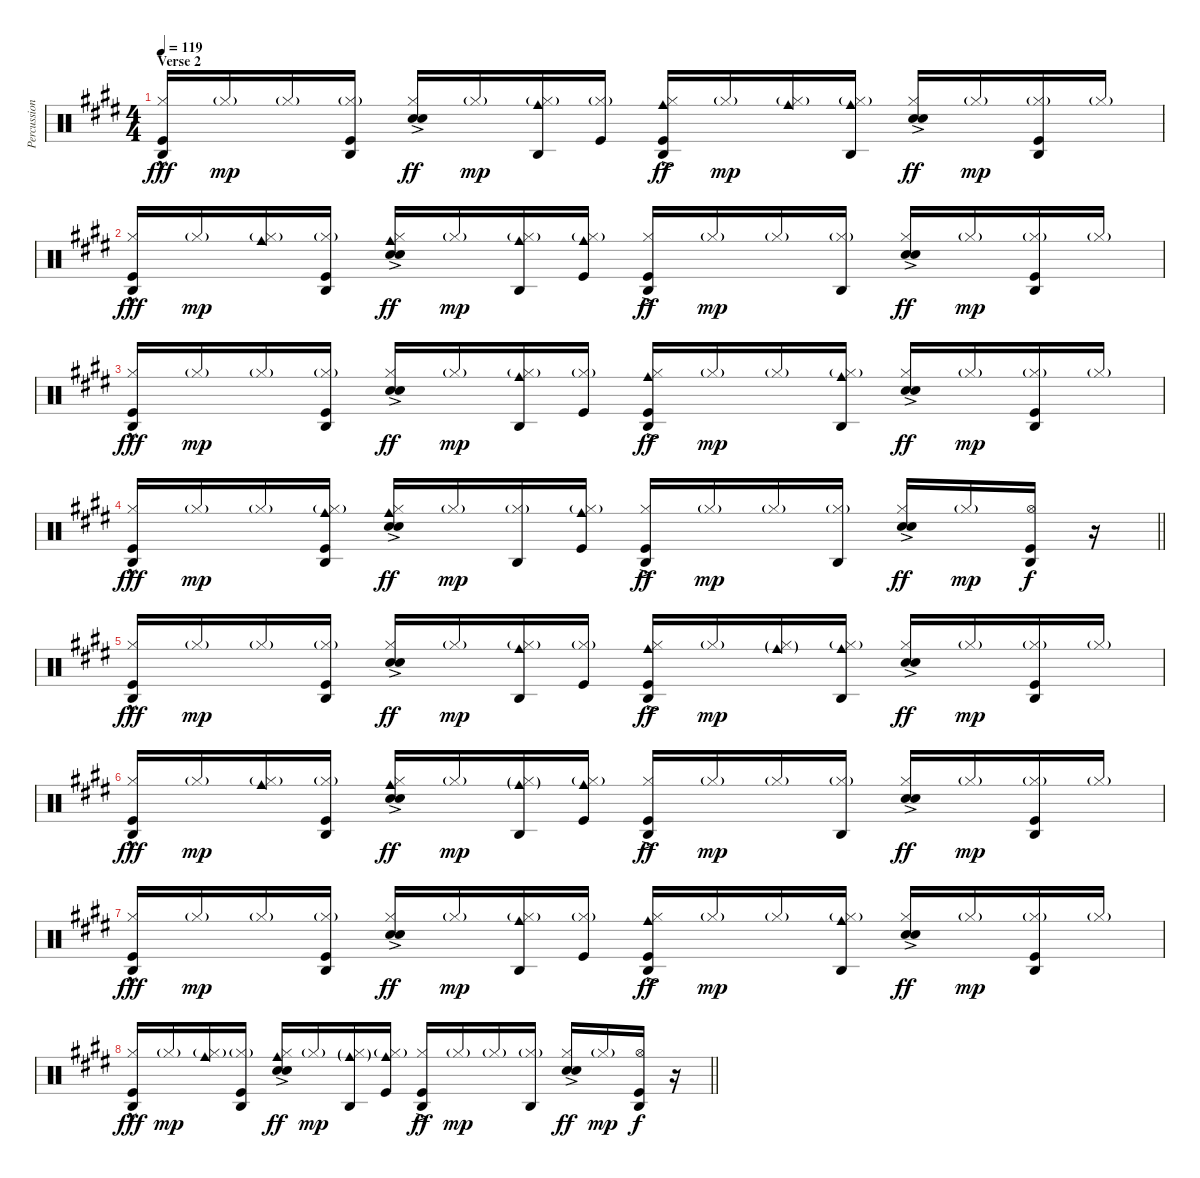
\track ("Percussion" "Percussion") {instrument percussion}
\staff {score}
\articulation defaults
\ts (4 4)
\section ("" "Verse 2")
\tempo 119
\clef neutral
\ks e
("Agogo high (hit)" "Hi-Hat (closed)" "Kick (hit)"{hac}).16{dy fff} "Hi-Hat (closed)"{g}.16{dy mp} "Hi-Hat (closed)"{g}.16 ("Agogo high (hit)" "Hi-Hat (closed)"{g} "Kick (hit)").16 ("Hi-Hat (closed)" "Hand Clap (hit)"{ac} "Snare (hit) 2"{ac}).16{dy ff} "Hi-Hat (closed)"{g}.16{dy mp} ("Agogo high (hit)" "Cowbell medium (hit)" "Hi-Hat (closed)"{g}).16 ("Hi-Hat (closed)"{g} "Kick (hit)").16 ("Agogo high (hit)" "Cowbell medium (hit)" "Hi-Hat (closed)" "Kick (hit)"{ac}).16{dy ff} "Hi-Hat (closed)"{g}.16{dy mp} ("Cowbell medium (hit)" "Hi-Hat (closed)"{g}).16 ("Agogo high (hit)" "Cowbell medium (hit)" "Hi-Hat (closed)"{g}).16 ("Hi-Hat (closed)" "Hand Clap (hit)"{ac} "Snare (hit) 2"{ac}).16{dy ff} "Hi-Hat (closed)"{g}.16{dy mp} ("Agogo high (hit)" "Hi-Hat (closed)"{g} "Kick (hit)").16 "Hi-Hat (closed)"{g}.16 |
("Agogo high (hit)" "Hi-Hat (closed)" "Kick (hit)"{hac}).16{dy fff} "Hi-Hat (closed)"{g}.16{dy mp} ("Cowbell medium (hit)" "Hi-Hat (closed)"{g}).16 ("Agogo high (hit)" "Hi-Hat (closed)"{g} "Kick (hit)").16 ("Cowbell medium (hit)" "Hi-Hat (closed)" "Hand Clap (hit)"{ac} "Snare (hit) 2"{ac}).16{dy ff} "Hi-Hat (closed)"{g}.16{dy mp} ("Agogo high (hit)" "Cowbell medium (hit)" "Hi-Hat (closed)"{g}).16 ("Cowbell medium (hit)" "Hi-Hat (closed)"{g} "Kick (hit)").16 ("Agogo high (hit)" "Hi-Hat (closed)" "Kick (hit)"{ac}).16{dy ff} "Hi-Hat (closed)"{g}.16{dy mp} "Hi-Hat (closed)"{g}.16 ("Agogo high (hit)" "Hi-Hat (closed)"{g}).16 ("Hi-Hat (closed)" "Hand Clap (hit)"{ac} "Snare (hit) 2"{ac}).16{dy ff} "Hi-Hat (closed)"{g}.16{dy mp} ("Agogo high (hit)" "Hi-Hat (closed)"{g} "Kick (hit)").16 "Hi-Hat (closed)"{g}.16 |
("Agogo high (hit)" "Hi-Hat (closed)" "Kick (hit)"{hac}).16{dy fff} "Hi-Hat (closed)"{g}.16{dy mp} "Hi-Hat (closed)"{g}.16 ("Agogo high (hit)" "Hi-Hat (closed)"{g} "Kick (hit)").16 ("Hi-Hat (closed)" "Hand Clap (hit)"{ac} "Snare (hit) 2"{ac}).16{dy ff} "Hi-Hat (closed)"{g}.16{dy mp} ("Agogo high (hit)" "Cowbell medium (hit)" "Hi-Hat (closed)"{g}).16 ("Hi-Hat (closed)"{g} "Kick (hit)").16 ("Agogo high (hit)" "Cowbell medium (hit)" "Hi-Hat (closed)" "Kick (hit)"{ac}).16{dy ff} "Hi-Hat (closed)"{g}.16{dy mp} "Hi-Hat (closed)"{g}.16 ("Agogo high (hit)" "Cowbell medium (hit)" "Hi-Hat (closed)"{g}).16 ("Hi-Hat (closed)" "Hand Clap (hit)"{ac} "Snare (hit) 2"{ac}).16{dy ff} "Hi-Hat (closed)"{g}.16{dy mp} ("Agogo high (hit)" "Hi-Hat (closed)"{g} "Kick (hit)").16 "Hi-Hat (closed)"{g}.16 |
\barLineRight lightlight
("Agogo high (hit)" "Hi-Hat (closed)" "Kick (hit)"{hac}).16{dy fff} "Hi-Hat (closed)"{g}.16{dy mp} "Hi-Hat (closed)"{g}.16 ("Agogo high (hit)" "Cowbell medium (hit)" "Hi-Hat (closed)"{g} "Kick (hit)").16 ("Cowbell medium (hit)" "Hi-Hat (closed)" "Hand Clap (hit)"{ac} "Snare (hit) 2"{ac}).16{dy ff} "Hi-Hat (closed)"{g}.16{dy mp} ("Agogo high (hit)" "Hi-Hat (closed)"{g}).16 ("Cowbell medium (hit)" "Hi-Hat (closed)"{g} "Kick (hit)").16 ("Agogo high (hit)" "Hi-Hat (closed)" "Kick (hit)"{ac}).16{dy ff} "Hi-Hat (closed)"{g}.16{dy mp} "Hi-Hat (closed)"{g}.16 ("Agogo high (hit)" "Hi-Hat (closed)"{g}).16 ("Hi-Hat (closed)" "Hand Clap (hit)"{ac} "Snare (hit) 2"{ac}).16{dy ff} "Hi-Hat (closed)"{g}.16{dy mp} ("Agogo high (hit)" "Hi-Hat (open)" "Kick (hit)").16{dy f} r.16 |
("Agogo high (hit)" "Hi-Hat (closed)" "Kick (hit)"{hac}).16{dy fff} "Hi-Hat (closed)"{g}.16{dy mp} "Hi-Hat (closed)"{g}.16 ("Agogo high (hit)" "Hi-Hat (closed)"{g} "Kick (hit)").16 ("Hi-Hat (closed)" "Hand Clap (hit)"{ac} "Snare (hit) 2"{ac}).16{dy ff} "Hi-Hat (closed)"{g}.16{dy mp} ("Agogo high (hit)" "Cowbell medium (hit)" "Hi-Hat (closed)"{g}).16 ("Hi-Hat (closed)"{g} "Kick (hit)").16 ("Agogo high (hit)" "Cowbell medium (hit)" "Hi-Hat (closed)" "Kick (hit)"{ac}).16{dy ff} "Hi-Hat (closed)"{g}.16{dy mp} ("Cowbell medium (hit)"{g} "Hi-Hat (closed)"{g}).16 ("Agogo high (hit)" "Cowbell medium (hit)" "Hi-Hat (closed)"{g}).16 ("Hi-Hat (closed)" "Hand Clap (hit)"{ac} "Snare (hit) 2"{ac}).16{dy ff} "Hi-Hat (closed)"{g}.16{dy mp} ("Agogo high (hit)" "Hi-Hat (closed)"{g} "Kick (hit)").16 "Hi-Hat (closed)"{g}.16 |
("Agogo high (hit)" "Hi-Hat (closed)" "Kick (hit)"{hac}).16{dy fff} "Hi-Hat (closed)"{g}.16{dy mp} ("Cowbell medium (hit)" "Hi-Hat (closed)"{g}).16 ("Agogo high (hit)" "Hi-Hat (closed)"{g} "Kick (hit)").16 ("Cowbell medium (hit)" "Hi-Hat (closed)" "Hand Clap (hit)"{ac} "Snare (hit) 2"{ac}).16{dy ff} "Hi-Hat (closed)"{g}.16{dy mp} ("Agogo high (hit)" "Cowbell medium (hit)"{g} "Hi-Hat (closed)"{g}).16 ("Cowbell medium (hit)" "Hi-Hat (closed)"{g} "Kick (hit)").16 ("Agogo high (hit)" "Hi-Hat (closed)" "Kick (hit)"{ac}).16{dy ff} "Hi-Hat (closed)"{g}.16{dy mp} "Hi-Hat (closed)"{g}.16 ("Agogo high (hit)" "Hi-Hat (closed)"{g}).16 ("Hi-Hat (closed)" "Hand Clap (hit)"{ac} "Snare (hit) 2"{ac}).16{dy ff} "Hi-Hat (closed)"{g}.16{dy mp} ("Agogo high (hit)" "Hi-Hat (closed)"{g} "Kick (hit)").16 "Hi-Hat (closed)"{g}.16 |
("Agogo high (hit)" "Hi-Hat (closed)" "Kick (hit)"{hac}).16{dy fff} "Hi-Hat (closed)"{g}.16{dy mp} "Hi-Hat (closed)"{g}.16 ("Agogo high (hit)" "Hi-Hat (closed)"{g} "Kick (hit)").16 ("Hi-Hat (closed)" "Hand Clap (hit)"{ac} "Snare (hit) 2"{ac}).16{dy ff} "Hi-Hat (closed)"{g}.16{dy mp} ("Agogo high (hit)" "Cowbell medium (hit)" "Hi-Hat (closed)"{g}).16 ("Hi-Hat (closed)"{g} "Kick (hit)").16 ("Agogo high (hit)" "Cowbell medium (hit)" "Hi-Hat (closed)" "Kick (hit)"{ac}).16{dy ff} "Hi-Hat (closed)"{g}.16{dy mp} "Hi-Hat (closed)"{g}.16 ("Agogo high (hit)" "Cowbell medium (hit)" "Hi-Hat (closed)"{g}).16 ("Hi-Hat (closed)" "Hand Clap (hit)"{ac} "Snare (hit) 2"{ac}).16{dy ff} "Hi-Hat (closed)"{g}.16{dy mp} ("Agogo high (hit)" "Hi-Hat (closed)"{g} "Kick (hit)").16 "Hi-Hat (closed)"{g}.16 |
\barLineRight lightlight
("Agogo high (hit)" "Hi-Hat (closed)" "Kick (hit)"{hac}).16{dy fff} "Hi-Hat (closed)"{g}.16{dy mp} ("Cowbell medium (hit)" "Hi-Hat (closed)"{g}).16 ("Agogo high (hit)" "Hi-Hat (closed)"{g} "Kick (hit)").16 ("Cowbell medium (hit)" "Hi-Hat (closed)" "Hand Clap (hit)"{ac} "Snare (hit) 2"{ac}).16{dy ff} "Hi-Hat (closed)"{g}.16{dy mp} ("Agogo high (hit)" "Cowbell medium (hit)"{g} "Hi-Hat (closed)"{g}).16 ("Cowbell medium (hit)" "Hi-Hat (closed)"{g} "Kick (hit)").16 ("Agogo high (hit)" "Hi-Hat (closed)" "Kick (hit)"{ac}).16{dy ff} "Hi-Hat (closed)"{g}.16{dy mp} "Hi-Hat (closed)"{g}.16 ("Agogo high (hit)" "Hi-Hat (closed)"{g}).16 ("Hi-Hat (closed)" "Hand Clap (hit)"{ac} "Snare (hit) 2"{ac}).16{dy ff} "Hi-Hat (closed)"{g}.16{dy mp} ("Agogo high (hit)" "Hi-Hat (open)" "Kick (hit)").16{dy f} r.16
